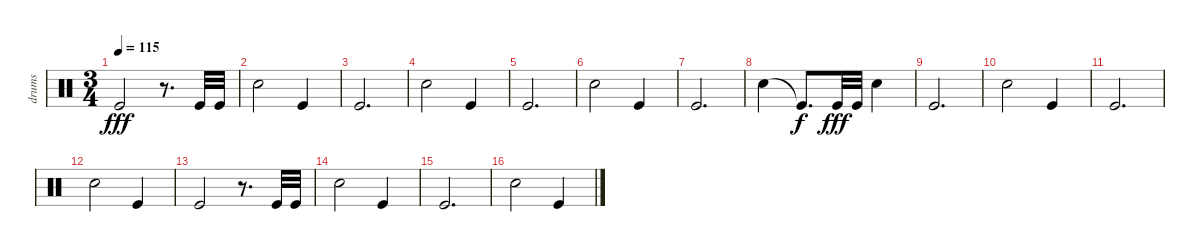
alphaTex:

\track ("drums" "drums") {instrument percussion}
\staff {score}
\articulation defaults
\ts (3 4)
\tempo 115
\clef neutral
\ks c "Kick (hit)".2{dy fff}
r.8{d} "Kick (hit)".32 "Kick (hit)".32 |
"Electric Snare (hit)".2 "Kick (hit)".4 |
"Kick (hit)".2{d} |
"Electric Snare (hit)".2 "Kick (hit)".4 |
"Kick (hit)".2{d} |
"Electric Snare (hit)".2 "Kick (hit)".4 |
"Kick (hit)".2{d} |
"Electric Snare (hit)".4 "Kick (hit)"{t}.8{d dy f} "Kick (hit)".32{dy fff} "Kick (hit)".32 "Electric Snare (hit)".4 |
"Kick (hit)".2{d} |
"Electric Snare (hit)".2 "Kick (hit)".4 |
"Kick (hit)".2{d} |
"Electric Snare (hit)".2 "Kick (hit)".4 |
"Kick (hit)".2 r.8{d} "Kick (hit)".32 "Kick (hit)".32 |
"Electric Snare (hit)".2 "Kick (hit)".4 |
"Kick (hit)".2{d} |
"Electric Snare (hit)".2 "Kick (hit)".4
